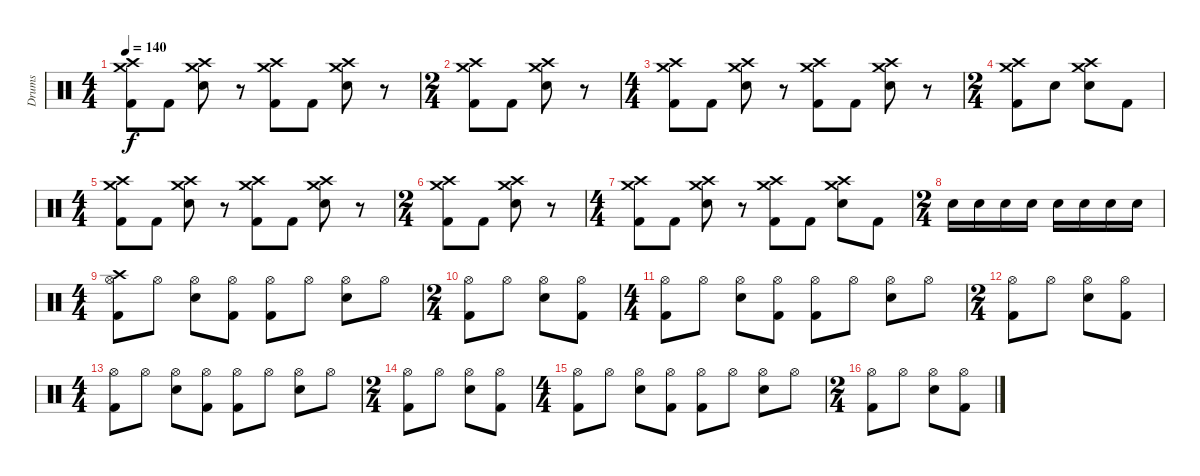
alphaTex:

\track ("Drums" "Drums") {instrument percussion}
\staff {score}
\articulation defaults
\ts (4 4)
\tempo 140
\clef neutral
\ks c
("Crash medium (hit)" "Crash high (hit)" "Kick (hit) 2").8{dy f} "Kick (hit) 2".8 ("Crash medium (hit)" "Crash high (hit)" "Electric Snare (hit)").8 r.8 ("Crash medium (hit)" "Crash high (hit)" "Kick (hit) 2").8 "Kick (hit) 2".8 ("Crash medium (hit)" "Crash high (hit)" "Electric Snare (hit)").8 r.8 |
\ts (2 4)
("Crash medium (hit)" "Crash high (hit)" "Kick (hit) 2").8 "Kick (hit) 2".8 ("Crash medium (hit)" "Crash high (hit)" "Electric Snare (hit)").8 r.8 |
\ts (4 4)
("Crash medium (hit)" "Crash high (hit)" "Kick (hit) 2").8 "Kick (hit) 2".8 ("Crash medium (hit)" "Crash high (hit)" "Electric Snare (hit)").8 r.8 ("Crash medium (hit)" "Crash high (hit)" "Kick (hit) 2").8 "Kick (hit) 2".8 ("Crash medium (hit)" "Crash high (hit)" "Electric Snare (hit)").8 r.8 |
\ts (2 4)
("Crash medium (hit)" "Crash high (hit)" "Kick (hit) 2").8 "Electric Snare (hit)".8 ("Crash medium (hit)" "Crash high (hit)" "Electric Snare (hit)").8 "Kick (hit) 2".8 |
\ts (4 4)
("Crash medium (hit)" "Crash high (hit)" "Kick (hit) 2").8 "Kick (hit) 2".8 ("Crash medium (hit)" "Crash high (hit)" "Electric Snare (hit)").8 r.8 ("Crash medium (hit)" "Crash high (hit)" "Kick (hit) 2").8 "Kick (hit) 2".8 ("Crash medium (hit)" "Crash high (hit)" "Electric Snare (hit)").8 r.8 |
\ts (2 4)
("Crash medium (hit)" "Crash high (hit)" "Kick (hit) 2").8 "Kick (hit) 2".8 ("Crash medium (hit)" "Crash high (hit)" "Electric Snare (hit)").8 r.8 |
\ts (4 4)
("Crash medium (hit)" "Crash high (hit)" "Kick (hit) 2").8 "Kick (hit) 2".8 ("Crash medium (hit)" "Crash high (hit)" "Electric Snare (hit)").8 r.8 ("Crash medium (hit)" "Crash high (hit)" "Kick (hit) 2").8 "Kick (hit) 2".8 ("Crash medium (hit)" "Crash high (hit)" "Electric Snare (hit)").8 "Kick (hit) 2".8 |
\ts (2 4)
"Electric Snare (hit)".16 "Electric Snare (hit)".16 "Electric Snare (hit)".16 "Electric Snare (hit)".16 "Electric Snare (hit)".16 "Electric Snare (hit)".16 "Electric Snare (hit)".16 "Electric Snare (hit)".16 |
\ts (4 4)
("Hi-Hat (open)" "Crash high (hit)" "Kick (hit) 2").8 "Hi-Hat (open)".8 ("Hi-Hat (open)" "Electric Snare (hit)").8 ("Hi-Hat (open)" "Kick (hit) 2").8 ("Hi-Hat (open)" "Kick (hit) 2").8 "Hi-Hat (open)".8 ("Hi-Hat (open)" "Electric Snare (hit)").8 "Hi-Hat (open)".8 |
\ts (2 4)
("Hi-Hat (open)" "Kick (hit) 2").8 "Hi-Hat (open)".8 ("Hi-Hat (open)" "Electric Snare (hit)").8 ("Hi-Hat (open)" "Kick (hit) 2").8 |
\ts (4 4)
("Hi-Hat (open)" "Kick (hit) 2").8 "Hi-Hat (open)".8 ("Hi-Hat (open)" "Electric Snare (hit)").8 ("Hi-Hat (open)" "Kick (hit) 2").8 ("Hi-Hat (open)" "Kick (hit) 2").8 "Hi-Hat (open)".8 ("Hi-Hat (open)" "Electric Snare (hit)").8 "Hi-Hat (open)".8 |
\ts (2 4)
("Hi-Hat (open)" "Kick (hit) 2").8 "Hi-Hat (open)".8 ("Hi-Hat (open)" "Electric Snare (hit)").8 ("Hi-Hat (open)" "Kick (hit) 2").8 |
\ts (4 4)
("Hi-Hat (open)" "Kick (hit) 2").8 "Hi-Hat (open)".8 ("Hi-Hat (open)" "Electric Snare (hit)").8 ("Hi-Hat (open)" "Kick (hit) 2").8 ("Hi-Hat (open)" "Kick (hit) 2").8 "Hi-Hat (open)".8 ("Hi-Hat (open)" "Electric Snare (hit)").8 "Hi-Hat (open)".8 |
\ts (2 4)
("Hi-Hat (open)" "Kick (hit) 2").8 "Hi-Hat (open)".8 ("Hi-Hat (open)" "Electric Snare (hit)").8 ("Hi-Hat (open)" "Kick (hit) 2").8 |
\ts (4 4)
("Hi-Hat (open)" "Kick (hit) 2").8 "Hi-Hat (open)".8 ("Hi-Hat (open)" "Electric Snare (hit)").8 ("Hi-Hat (open)" "Kick (hit) 2").8 ("Hi-Hat (open)" "Kick (hit) 2").8 "Hi-Hat (open)".8 ("Hi-Hat (open)" "Electric Snare (hit)").8 "Hi-Hat (open)".8 |
\ts (2 4)
("Hi-Hat (open)" "Kick (hit) 2").8 "Hi-Hat (open)".8 ("Hi-Hat (open)" "Electric Snare (hit)").8 ("Hi-Hat (open)" "Kick (hit) 2").8
